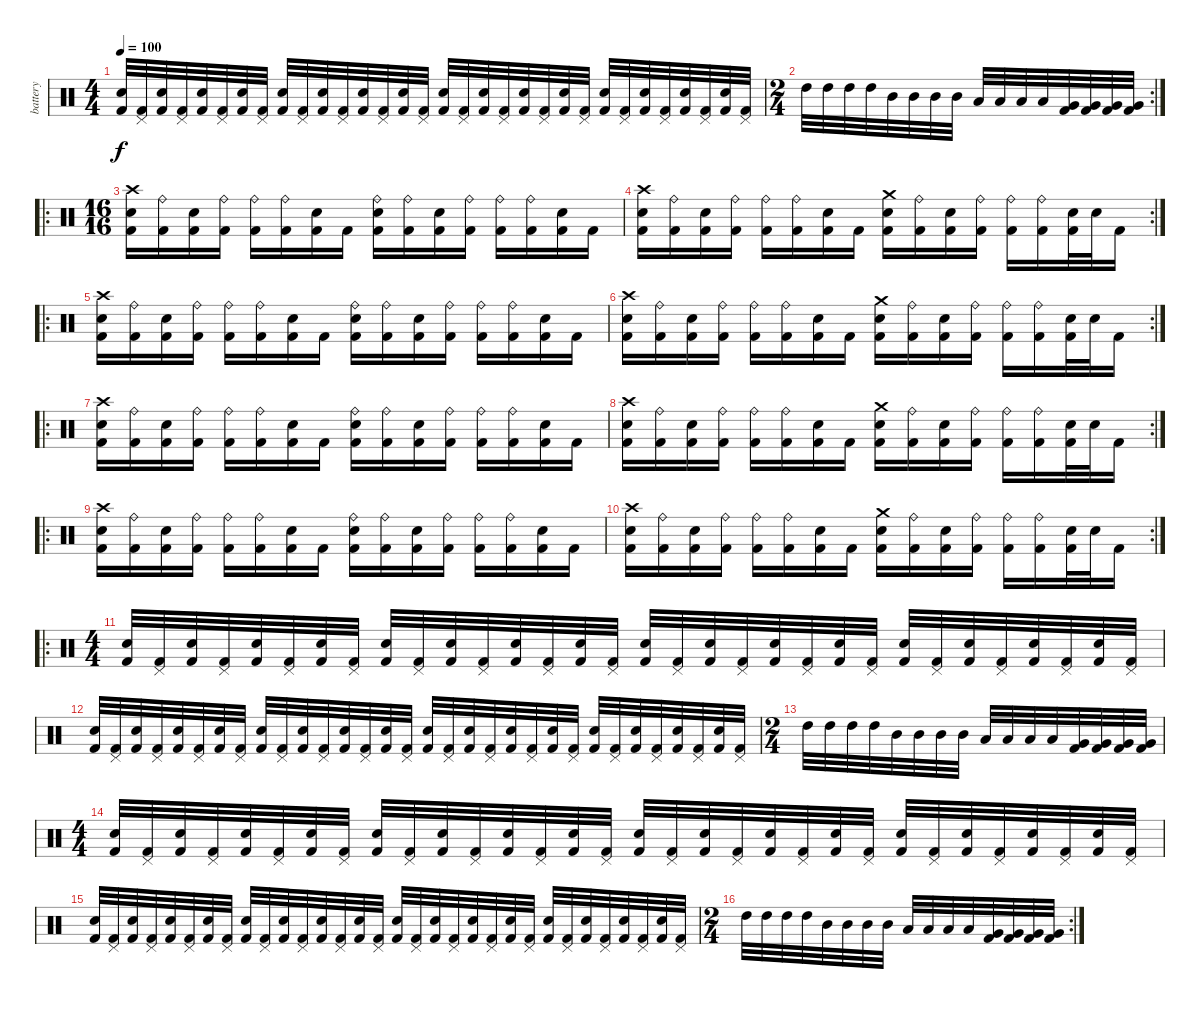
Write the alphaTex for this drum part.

\track ("battery" "battery") {instrument percussion}
\staff {score}
\articulation defaults
\ts (4 4)
\tempo 100
\clef neutral
\ks c
("Snare (hit) 2" "Kick (hit) 2").32{dy f} ("Pedal Hi-Hat (hit)" "Kick (hit) 2").32 ("Snare (hit) 2" "Kick (hit) 2").32 ("Pedal Hi-Hat (hit)" "Kick (hit) 2").32 ("Snare (hit) 2" "Kick (hit) 2").32 ("Pedal Hi-Hat (hit)" "Kick (hit) 2").32 ("Snare (hit) 2" "Kick (hit) 2").32 ("Pedal Hi-Hat (hit)" "Kick (hit) 2").32 ("Snare (hit) 2" "Kick (hit) 2").32 ("Pedal Hi-Hat (hit)" "Kick (hit) 2").32 ("Snare (hit) 2" "Kick (hit) 2").32 ("Pedal Hi-Hat (hit)" "Kick (hit) 2").32 ("Snare (hit) 2" "Kick (hit) 2").32 ("Pedal Hi-Hat (hit)" "Kick (hit) 2").32 ("Snare (hit) 2" "Kick (hit) 2").32 ("Pedal Hi-Hat (hit)" "Kick (hit) 2").32 ("Snare (hit) 2" "Kick (hit) 2").32 ("Pedal Hi-Hat (hit)" "Kick (hit) 2").32 ("Snare (hit) 2" "Kick (hit) 2").32 ("Pedal Hi-Hat (hit)" "Kick (hit) 2").32 ("Snare (hit) 2" "Kick (hit) 2").32 ("Pedal Hi-Hat (hit)" "Kick (hit) 2").32 ("Snare (hit) 2" "Kick (hit) 2").32 ("Pedal Hi-Hat (hit)" "Kick (hit) 2").32 ("Snare (hit) 2" "Kick (hit) 2").32 ("Pedal Hi-Hat (hit)" "Kick (hit) 2").32 ("Snare (hit) 2" "Kick (hit) 2").32 ("Pedal Hi-Hat (hit)" "Kick (hit) 2").32 ("Snare (hit) 2" "Kick (hit) 2").32 ("Pedal Hi-Hat (hit)" "Kick (hit) 2").32 ("Snare (hit) 2" "Kick (hit) 2").32 ("Pedal Hi-Hat (hit)" "Kick (hit) 2").32 |
\rc 2
\ts (2 4)
"High Tom (hit)".32 "High Tom (hit)".32 "High Tom (hit)".32 "High Tom (hit)".32 "Mid Tom (hit)".32 "Mid Tom (hit)".32 "Mid Tom (hit)".32 "Mid Tom (hit)".32 "Low Tom (hit)".32 "Low Tom (hit)".32 "Low Tom (hit)".32 "Low Tom (hit)".32 ("Kick (hit) 2" "Very Low Tom (hit)").32 ("Kick (hit) 2" "Very Low Tom (hit)").32 ("Kick (hit) 2" "Very Low Tom (hit)").32 ("Kick (hit) 2" "Very Low Tom (hit)").32 |
\ro
\ts (16 16)
("Crash high (hit)" "Snare (hit) 2" "Kick (hit) 2").16 ("Ride (bell)" "Kick (hit) 2").16 ("Snare (hit) 2" "Kick (hit) 2").16 ("Ride (bell)" "Kick (hit) 2").16 ("Ride (bell)" "Kick (hit) 2").16 ("Ride (bell)" "Kick (hit) 2").16 ("Snare (hit) 2" "Kick (hit) 2").16 "Kick (hit) 2".16 ("Ride (bell)" "Snare (hit) 2" "Kick (hit) 2").16 ("Ride (bell)" "Kick (hit) 2").16 ("Snare (hit) 2" "Kick (hit) 2").16 ("Ride (bell)" "Kick (hit) 2").16 ("Ride (bell)" "Kick (hit) 2").16 ("Ride (bell)" "Kick (hit) 2").16 ("Snare (hit) 2" "Kick (hit) 2").16 "Kick (hit) 2".16 |
\rc 2
("Crash high (hit)" "Snare (hit) 2" "Kick (hit) 2").16 ("Ride (bell)" "Kick (hit) 2").16 ("Snare (hit) 2" "Kick (hit) 2").16 ("Ride (bell)" "Kick (hit) 2").16 ("Ride (bell)" "Kick (hit) 2").16 ("Ride (bell)" "Kick (hit) 2").16 ("Snare (hit) 2" "Kick (hit) 2").16 "Kick (hit) 2".16 ("Crash medium (hit)" "Snare (hit) 2" "Kick (hit) 2").16 ("Ride (bell)" "Kick (hit) 2").16 ("Snare (hit) 2" "Kick (hit) 2").16 ("Ride (bell)" "Kick (hit) 2").16 ("Ride (bell)" "Kick (hit) 2").16 ("Ride (bell)" "Kick (hit) 2").16 ("Snare (hit) 2" "Kick (hit) 2").32 "Snare (hit) 2".32 "Kick (hit) 2".16 |
\ro
("Crash high (hit)" "Snare (hit) 2" "Kick (hit) 2").16 ("Ride (bell)" "Kick (hit) 2").16 ("Snare (hit) 2" "Kick (hit) 2").16 ("Ride (bell)" "Kick (hit) 2").16 ("Ride (bell)" "Kick (hit) 2").16 ("Ride (bell)" "Kick (hit) 2").16 ("Snare (hit) 2" "Kick (hit) 2").16 "Kick (hit) 2".16 ("Ride (bell)" "Snare (hit) 2" "Kick (hit) 2").16 ("Ride (bell)" "Kick (hit) 2").16 ("Snare (hit) 2" "Kick (hit) 2").16 ("Ride (bell)" "Kick (hit) 2").16 ("Ride (bell)" "Kick (hit) 2").16 ("Ride (bell)" "Kick (hit) 2").16 ("Snare (hit) 2" "Kick (hit) 2").16 "Kick (hit) 2".16 |
\rc 2
("Crash high (hit)" "Snare (hit) 2" "Kick (hit) 2").16 ("Ride (bell)" "Kick (hit) 2").16 ("Snare (hit) 2" "Kick (hit) 2").16 ("Ride (bell)" "Kick (hit) 2").16 ("Ride (bell)" "Kick (hit) 2").16 ("Ride (bell)" "Kick (hit) 2").16 ("Snare (hit) 2" "Kick (hit) 2").16 "Kick (hit) 2".16 ("Crash medium (hit)" "Snare (hit) 2" "Kick (hit) 2").16 ("Ride (bell)" "Kick (hit) 2").16 ("Snare (hit) 2" "Kick (hit) 2").16 ("Ride (bell)" "Kick (hit) 2").16 ("Ride (bell)" "Kick (hit) 2").16 ("Ride (bell)" "Kick (hit) 2").16 ("Snare (hit) 2" "Kick (hit) 2").32 "Snare (hit) 2".32 "Kick (hit) 2".16 |
\ro
("Crash high (hit)" "Snare (hit) 2" "Kick (hit) 2").16 ("Ride (bell)" "Kick (hit) 2").16 ("Snare (hit) 2" "Kick (hit) 2").16 ("Ride (bell)" "Kick (hit) 2").16 ("Ride (bell)" "Kick (hit) 2").16 ("Ride (bell)" "Kick (hit) 2").16 ("Snare (hit) 2" "Kick (hit) 2").16 "Kick (hit) 2".16 ("Ride (bell)" "Snare (hit) 2" "Kick (hit) 2").16 ("Ride (bell)" "Kick (hit) 2").16 ("Snare (hit) 2" "Kick (hit) 2").16 ("Ride (bell)" "Kick (hit) 2").16 ("Ride (bell)" "Kick (hit) 2").16 ("Ride (bell)" "Kick (hit) 2").16 ("Snare (hit) 2" "Kick (hit) 2").16 "Kick (hit) 2".16 |
\rc 2
("Crash high (hit)" "Snare (hit) 2" "Kick (hit) 2").16 ("Ride (bell)" "Kick (hit) 2").16 ("Snare (hit) 2" "Kick (hit) 2").16 ("Ride (bell)" "Kick (hit) 2").16 ("Ride (bell)" "Kick (hit) 2").16 ("Ride (bell)" "Kick (hit) 2").16 ("Snare (hit) 2" "Kick (hit) 2").16 "Kick (hit) 2".16 ("Crash medium (hit)" "Snare (hit) 2" "Kick (hit) 2").16 ("Ride (bell)" "Kick (hit) 2").16 ("Snare (hit) 2" "Kick (hit) 2").16 ("Ride (bell)" "Kick (hit) 2").16 ("Ride (bell)" "Kick (hit) 2").16 ("Ride (bell)" "Kick (hit) 2").16 ("Snare (hit) 2" "Kick (hit) 2").32 "Snare (hit) 2".32 "Kick (hit) 2".16 |
\ro
("Crash high (hit)" "Snare (hit) 2" "Kick (hit) 2").16 ("Ride (bell)" "Kick (hit) 2").16 ("Snare (hit) 2" "Kick (hit) 2").16 ("Ride (bell)" "Kick (hit) 2").16 ("Ride (bell)" "Kick (hit) 2").16 ("Ride (bell)" "Kick (hit) 2").16 ("Snare (hit) 2" "Kick (hit) 2").16 "Kick (hit) 2".16 ("Ride (bell)" "Snare (hit) 2" "Kick (hit) 2").16 ("Ride (bell)" "Kick (hit) 2").16 ("Snare (hit) 2" "Kick (hit) 2").16 ("Ride (bell)" "Kick (hit) 2").16 ("Ride (bell)" "Kick (hit) 2").16 ("Ride (bell)" "Kick (hit) 2").16 ("Snare (hit) 2" "Kick (hit) 2").16 "Kick (hit) 2".16 |
\rc 2
("Crash high (hit)" "Snare (hit) 2" "Kick (hit) 2").16 ("Ride (bell)" "Kick (hit) 2").16 ("Snare (hit) 2" "Kick (hit) 2").16 ("Ride (bell)" "Kick (hit) 2").16 ("Ride (bell)" "Kick (hit) 2").16 ("Ride (bell)" "Kick (hit) 2").16 ("Snare (hit) 2" "Kick (hit) 2").16 "Kick (hit) 2".16 ("Crash medium (hit)" "Snare (hit) 2" "Kick (hit) 2").16 ("Ride (bell)" "Kick (hit) 2").16 ("Snare (hit) 2" "Kick (hit) 2").16 ("Ride (bell)" "Kick (hit) 2").16 ("Ride (bell)" "Kick (hit) 2").16 ("Ride (bell)" "Kick (hit) 2").16 ("Snare (hit) 2" "Kick (hit) 2").32 "Snare (hit) 2".32 "Kick (hit) 2".16 |
\ro
\ts (4 4)
("Snare (hit) 2" "Kick (hit) 2").32 ("Pedal Hi-Hat (hit)" "Kick (hit) 2").32 ("Snare (hit) 2" "Kick (hit) 2").32 ("Pedal Hi-Hat (hit)" "Kick (hit) 2").32 ("Snare (hit) 2" "Kick (hit) 2").32 ("Pedal Hi-Hat (hit)" "Kick (hit) 2").32 ("Snare (hit) 2" "Kick (hit) 2").32 ("Pedal Hi-Hat (hit)" "Kick (hit) 2").32 ("Snare (hit) 2" "Kick (hit) 2").32 ("Pedal Hi-Hat (hit)" "Kick (hit) 2").32 ("Snare (hit) 2" "Kick (hit) 2").32 ("Pedal Hi-Hat (hit)" "Kick (hit) 2").32 ("Snare (hit) 2" "Kick (hit) 2").32 ("Pedal Hi-Hat (hit)" "Kick (hit) 2").32 ("Snare (hit) 2" "Kick (hit) 2").32 ("Pedal Hi-Hat (hit)" "Kick (hit) 2").32 ("Snare (hit) 2" "Kick (hit) 2").32 ("Pedal Hi-Hat (hit)" "Kick (hit) 2").32 ("Snare (hit) 2" "Kick (hit) 2").32 ("Pedal Hi-Hat (hit)" "Kick (hit) 2").32 ("Snare (hit) 2" "Kick (hit) 2").32 ("Pedal Hi-Hat (hit)" "Kick (hit) 2").32 ("Snare (hit) 2" "Kick (hit) 2").32 ("Pedal Hi-Hat (hit)" "Kick (hit) 2").32 ("Snare (hit) 2" "Kick (hit) 2").32 ("Pedal Hi-Hat (hit)" "Kick (hit) 2").32 ("Snare (hit) 2" "Kick (hit) 2").32 ("Pedal Hi-Hat (hit)" "Kick (hit) 2").32 ("Snare (hit) 2" "Kick (hit) 2").32 ("Pedal Hi-Hat (hit)" "Kick (hit) 2").32 ("Snare (hit) 2" "Kick (hit) 2").32 ("Pedal Hi-Hat (hit)" "Kick (hit) 2").32 |
("Snare (hit) 2" "Kick (hit) 2").32 ("Pedal Hi-Hat (hit)" "Kick (hit) 2").32 ("Snare (hit) 2" "Kick (hit) 2").32 ("Pedal Hi-Hat (hit)" "Kick (hit) 2").32 ("Snare (hit) 2" "Kick (hit) 2").32 ("Pedal Hi-Hat (hit)" "Kick (hit) 2").32 ("Snare (hit) 2" "Kick (hit) 2").32 ("Pedal Hi-Hat (hit)" "Kick (hit) 2").32 ("Snare (hit) 2" "Kick (hit) 2").32 ("Pedal Hi-Hat (hit)" "Kick (hit) 2").32 ("Snare (hit) 2" "Kick (hit) 2").32 ("Pedal Hi-Hat (hit)" "Kick (hit) 2").32 ("Snare (hit) 2" "Kick (hit) 2").32 ("Pedal Hi-Hat (hit)" "Kick (hit) 2").32 ("Snare (hit) 2" "Kick (hit) 2").32 ("Pedal Hi-Hat (hit)" "Kick (hit) 2").32 ("Snare (hit) 2" "Kick (hit) 2").32 ("Pedal Hi-Hat (hit)" "Kick (hit) 2").32 ("Snare (hit) 2" "Kick (hit) 2").32 ("Pedal Hi-Hat (hit)" "Kick (hit) 2").32 ("Snare (hit) 2" "Kick (hit) 2").32 ("Pedal Hi-Hat (hit)" "Kick (hit) 2").32 ("Snare (hit) 2" "Kick (hit) 2").32 ("Pedal Hi-Hat (hit)" "Kick (hit) 2").32 ("Snare (hit) 2" "Kick (hit) 2").32 ("Pedal Hi-Hat (hit)" "Kick (hit) 2").32 ("Snare (hit) 2" "Kick (hit) 2").32 ("Pedal Hi-Hat (hit)" "Kick (hit) 2").32 ("Snare (hit) 2" "Kick (hit) 2").32 ("Pedal Hi-Hat (hit)" "Kick (hit) 2").32 ("Snare (hit) 2" "Kick (hit) 2").32 ("Pedal Hi-Hat (hit)" "Kick (hit) 2").32 |
\ts (2 4)
"High Tom (hit)".32 "High Tom (hit)".32 "High Tom (hit)".32 "High Tom (hit)".32 "Mid Tom (hit)".32 "Mid Tom (hit)".32 "Mid Tom (hit)".32 "Mid Tom (hit)".32 "Low Tom (hit)".32 "Low Tom (hit)".32 "Low Tom (hit)".32 "Low Tom (hit)".32 ("Kick (hit) 2" "Very Low Tom (hit)").32 ("Kick (hit) 2" "Very Low Tom (hit)").32 ("Kick (hit) 2" "Very Low Tom (hit)").32 ("Kick (hit) 2" "Very Low Tom (hit)").32 |
\ts (4 4)
("Snare (hit) 2" "Kick (hit) 2").32 ("Pedal Hi-Hat (hit)" "Kick (hit) 2").32 ("Snare (hit) 2" "Kick (hit) 2").32 ("Pedal Hi-Hat (hit)" "Kick (hit) 2").32 ("Snare (hit) 2" "Kick (hit) 2").32 ("Pedal Hi-Hat (hit)" "Kick (hit) 2").32 ("Snare (hit) 2" "Kick (hit) 2").32 ("Pedal Hi-Hat (hit)" "Kick (hit) 2").32 ("Snare (hit) 2" "Kick (hit) 2").32 ("Pedal Hi-Hat (hit)" "Kick (hit) 2").32 ("Snare (hit) 2" "Kick (hit) 2").32 ("Pedal Hi-Hat (hit)" "Kick (hit) 2").32 ("Snare (hit) 2" "Kick (hit) 2").32 ("Pedal Hi-Hat (hit)" "Kick (hit) 2").32 ("Snare (hit) 2" "Kick (hit) 2").32 ("Pedal Hi-Hat (hit)" "Kick (hit) 2").32 ("Snare (hit) 2" "Kick (hit) 2").32 ("Pedal Hi-Hat (hit)" "Kick (hit) 2").32 ("Snare (hit) 2" "Kick (hit) 2").32 ("Pedal Hi-Hat (hit)" "Kick (hit) 2").32 ("Snare (hit) 2" "Kick (hit) 2").32 ("Pedal Hi-Hat (hit)" "Kick (hit) 2").32 ("Snare (hit) 2" "Kick (hit) 2").32 ("Pedal Hi-Hat (hit)" "Kick (hit) 2").32 ("Snare (hit) 2" "Kick (hit) 2").32 ("Pedal Hi-Hat (hit)" "Kick (hit) 2").32 ("Snare (hit) 2" "Kick (hit) 2").32 ("Pedal Hi-Hat (hit)" "Kick (hit) 2").32 ("Snare (hit) 2" "Kick (hit) 2").32 ("Pedal Hi-Hat (hit)" "Kick (hit) 2").32 ("Snare (hit) 2" "Kick (hit) 2").32 ("Pedal Hi-Hat (hit)" "Kick (hit) 2").32 |
("Snare (hit) 2" "Kick (hit) 2").32 ("Pedal Hi-Hat (hit)" "Kick (hit) 2").32 ("Snare (hit) 2" "Kick (hit) 2").32 ("Pedal Hi-Hat (hit)" "Kick (hit) 2").32 ("Snare (hit) 2" "Kick (hit) 2").32 ("Pedal Hi-Hat (hit)" "Kick (hit) 2").32 ("Snare (hit) 2" "Kick (hit) 2").32 ("Pedal Hi-Hat (hit)" "Kick (hit) 2").32 ("Snare (hit) 2" "Kick (hit) 2").32 ("Pedal Hi-Hat (hit)" "Kick (hit) 2").32 ("Snare (hit) 2" "Kick (hit) 2").32 ("Pedal Hi-Hat (hit)" "Kick (hit) 2").32 ("Snare (hit) 2" "Kick (hit) 2").32 ("Pedal Hi-Hat (hit)" "Kick (hit) 2").32 ("Snare (hit) 2" "Kick (hit) 2").32 ("Pedal Hi-Hat (hit)" "Kick (hit) 2").32 ("Snare (hit) 2" "Kick (hit) 2").32 ("Pedal Hi-Hat (hit)" "Kick (hit) 2").32 ("Snare (hit) 2" "Kick (hit) 2").32 ("Pedal Hi-Hat (hit)" "Kick (hit) 2").32 ("Snare (hit) 2" "Kick (hit) 2").32 ("Pedal Hi-Hat (hit)" "Kick (hit) 2").32 ("Snare (hit) 2" "Kick (hit) 2").32 ("Pedal Hi-Hat (hit)" "Kick (hit) 2").32 ("Snare (hit) 2" "Kick (hit) 2").32 ("Pedal Hi-Hat (hit)" "Kick (hit) 2").32 ("Snare (hit) 2" "Kick (hit) 2").32 ("Pedal Hi-Hat (hit)" "Kick (hit) 2").32 ("Snare (hit) 2" "Kick (hit) 2").32 ("Pedal Hi-Hat (hit)" "Kick (hit) 2").32 ("Snare (hit) 2" "Kick (hit) 2").32 ("Pedal Hi-Hat (hit)" "Kick (hit) 2").32 |
\rc 2
\ts (2 4)
"High Tom (hit)".32 "High Tom (hit)".32 "High Tom (hit)".32 "High Tom (hit)".32 "Mid Tom (hit)".32 "Mid Tom (hit)".32 "Mid Tom (hit)".32 "Mid Tom (hit)".32 "Low Tom (hit)".32 "Low Tom (hit)".32 "Low Tom (hit)".32 "Low Tom (hit)".32 ("Kick (hit) 2" "Very Low Tom (hit)").32 ("Kick (hit) 2" "Very Low Tom (hit)").32 ("Kick (hit) 2" "Very Low Tom (hit)").32 ("Kick (hit) 2" "Very Low Tom (hit)").32
